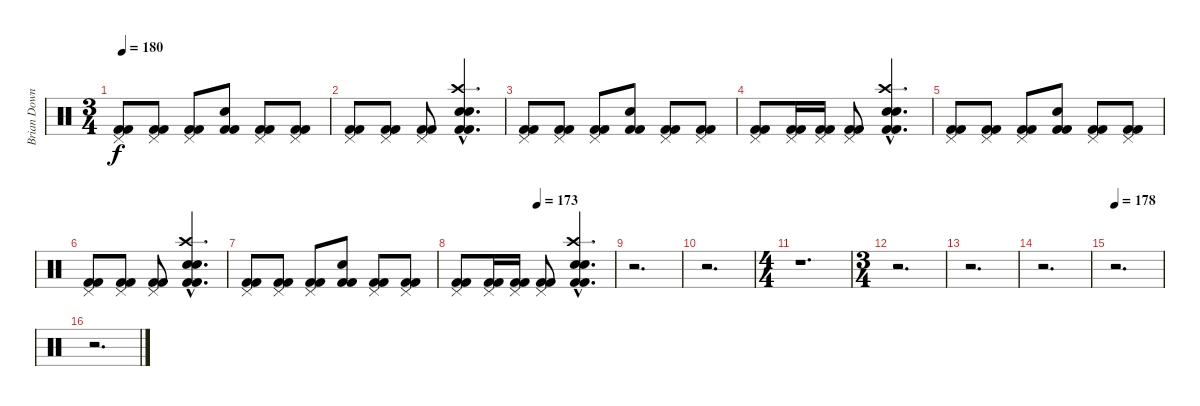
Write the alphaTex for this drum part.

\track ("Brian Downey" "Brian Down") {instrument percussion}
\staff {score}
\articulation defaults
\ts (3 4)
\tempo 180
\clef neutral
\ks c
("Pedal Hi-Hat (hit)" "Kick (hit) 2" "Kick (hit) 2").8{dy f} ("Pedal Hi-Hat (hit)" "Kick (hit) 2" "Kick (hit) 2").8 ("Pedal Hi-Hat (hit)" "Kick (hit) 2" "Kick (hit) 2").8 ("Snare (hit) 2" "Kick (hit) 2" "Kick (hit) 2").8 ("Pedal Hi-Hat (hit)" "Kick (hit) 2" "Kick (hit) 2").8 ("Pedal Hi-Hat (hit)" "Kick (hit) 2" "Kick (hit) 2").8 |
("Pedal Hi-Hat (hit)" "Kick (hit) 2" "Kick (hit) 2").8 ("Pedal Hi-Hat (hit)" "Kick (hit) 2" "Kick (hit) 2").8 ("Pedal Hi-Hat (hit)" "Kick (hit) 2" "Kick (hit) 2").8 ("Crash high (hit)"{hac} "Electric Snare (hit)"{hac} "Snare (hit) 2"{hac} "Kick (hit) 2"{hac} "Kick (hit) 2"{hac}).4{d} |
("Pedal Hi-Hat (hit)" "Kick (hit) 2" "Kick (hit) 2").8 ("Pedal Hi-Hat (hit)" "Kick (hit) 2" "Kick (hit) 2").8 ("Pedal Hi-Hat (hit)" "Kick (hit) 2" "Kick (hit) 2").8 ("Snare (hit) 2" "Kick (hit) 2" "Kick (hit) 2").8 ("Pedal Hi-Hat (hit)" "Kick (hit) 2" "Kick (hit) 2").8 ("Pedal Hi-Hat (hit)" "Kick (hit) 2" "Kick (hit) 2").8 |
("Pedal Hi-Hat (hit)" "Kick (hit) 2" "Kick (hit) 2").8 ("Pedal Hi-Hat (hit)" "Kick (hit) 2" "Kick (hit) 2").16 ("Pedal Hi-Hat (hit)" "Kick (hit) 2" "Kick (hit) 2").16 ("Pedal Hi-Hat (hit)" "Kick (hit) 2" "Kick (hit) 2").8 ("Crash high (hit)"{hac} "Electric Snare (hit)"{hac} "Snare (hit) 2"{hac} "Kick (hit) 2"{hac} "Kick (hit) 2"{hac}).4{d} |
("Pedal Hi-Hat (hit)" "Kick (hit) 2" "Kick (hit) 2").8 ("Pedal Hi-Hat (hit)" "Kick (hit) 2" "Kick (hit) 2").8 ("Pedal Hi-Hat (hit)" "Kick (hit) 2" "Kick (hit) 2").8 ("Snare (hit) 2" "Kick (hit) 2" "Kick (hit) 2").8 ("Pedal Hi-Hat (hit)" "Kick (hit) 2" "Kick (hit) 2").8 ("Pedal Hi-Hat (hit)" "Kick (hit) 2" "Kick (hit) 2").8 |
("Pedal Hi-Hat (hit)" "Kick (hit) 2" "Kick (hit) 2").8 ("Pedal Hi-Hat (hit)" "Kick (hit) 2" "Kick (hit) 2").8 ("Pedal Hi-Hat (hit)" "Kick (hit) 2" "Kick (hit) 2").8 ("Crash high (hit)"{hac} "Electric Snare (hit)"{hac} "Snare (hit) 2"{hac} "Kick (hit) 2"{hac} "Kick (hit) 2"{hac}).4{d} |
("Pedal Hi-Hat (hit)" "Kick (hit) 2" "Kick (hit) 2").8 ("Pedal Hi-Hat (hit)" "Kick (hit) 2" "Kick (hit) 2").8 ("Pedal Hi-Hat (hit)" "Kick (hit) 2" "Kick (hit) 2").8 ("Snare (hit) 2" "Kick (hit) 2" "Kick (hit) 2").8 ("Pedal Hi-Hat (hit)" "Kick (hit) 2" "Kick (hit) 2").8 ("Pedal Hi-Hat (hit)" "Kick (hit) 2" "Kick (hit) 2").8 |
\tempo (173 0.5)
("Pedal Hi-Hat (hit)" "Kick (hit) 2" "Kick (hit) 2").8 ("Pedal Hi-Hat (hit)" "Kick (hit) 2" "Kick (hit) 2").16 ("Pedal Hi-Hat (hit)" "Kick (hit) 2" "Kick (hit) 2").16 ("Pedal Hi-Hat (hit)" "Kick (hit) 2" "Kick (hit) 2").8 ("Crash high (hit)"{hac} "Electric Snare (hit)"{hac} "Snare (hit) 2"{hac} "Kick (hit) 2"{hac} "Kick (hit) 2"{hac}).4{d} |
r.2{d} |
r.2{d} |
\ts (4 4)
r.1{d} |
\ts (3 4)
r.2{d} |
r.2{d} |
r.2{d} |
\tempo 178
r.2{d} |
r.2{d}
